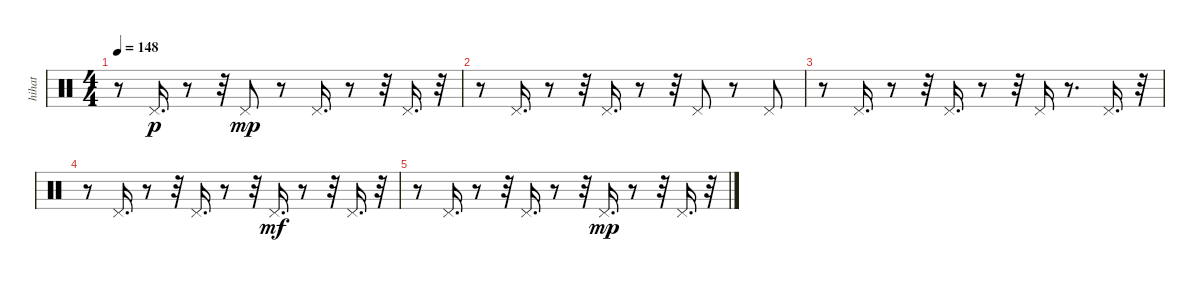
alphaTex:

\track ("hihat               " "hihat     ") {instrument percussion}
\staff {score}
\articulation defaults
\ts (4 4)
\tempo 148
\clef neutral
\ks c
r.8{dy mp} "Pedal Hi-Hat (hit)".16{d dy p} r.8 r.32 "Pedal Hi-Hat (hit)".8{dy mp} r.8 "Pedal Hi-Hat (hit)".16{d} r.8 r.32 "Pedal Hi-Hat (hit)".16{d} r.32 |
r.8 "Pedal Hi-Hat (hit)".16{d} r.8 r.32 "Pedal Hi-Hat (hit)".16{d} r.8 r.32 "Pedal Hi-Hat (hit)".8 r.8 "Pedal Hi-Hat (hit)".8 |
r.8 "Pedal Hi-Hat (hit)".16{d} r.8 r.32 "Pedal Hi-Hat (hit)".16{d} r.8 r.32 "Pedal Hi-Hat (hit)".16 r.8{d} "Pedal Hi-Hat (hit)".16{d} r.32 |
r.8 "Pedal Hi-Hat (hit)".16{d} r.8 r.32 "Pedal Hi-Hat (hit)".16{d} r.8 r.32 "Pedal Hi-Hat (hit)".16{d dy mf} r.8 r.32 "Pedal Hi-Hat (hit)".16{d} r.32 |
r.8 "Pedal Hi-Hat (hit)".16{d} r.8 r.32 "Pedal Hi-Hat (hit)".16{d} r.8 r.32 "Pedal Hi-Hat (hit)".16{d dy mp} r.8 r.32 "Pedal Hi-Hat (hit)".16{d} r.32
